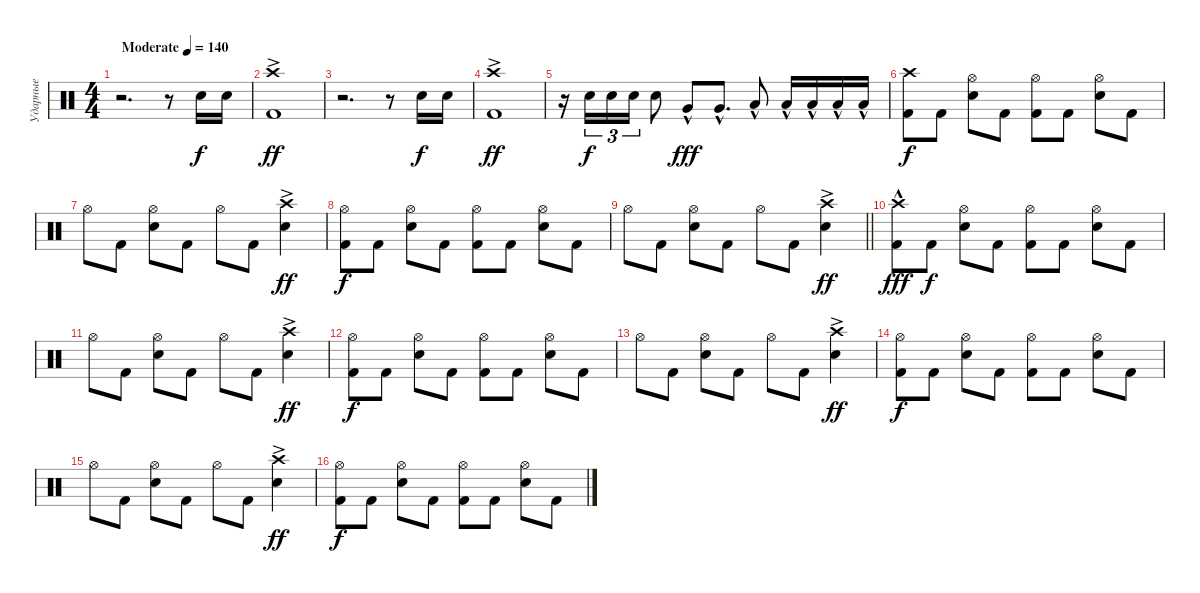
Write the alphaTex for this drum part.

\track ("Ударные" "Ударные") {instrument percussion}
\staff {score}
\articulation defaults
\ts (4 4)
\tempo (140 "Moderate")
\clef neutral
\ks c
r.2{d dy f} r.8 "Snare (hit) 2".16 "Snare (hit) 2".16 |
("Kick (hit) 2" "Crash high (hit)"{ac}).1{dy ff} |
r.2{d} r.8 "Snare (hit) 2".16{dy f} "Snare (hit) 2".16 |
("Kick (hit) 2" "Crash high (hit)"{ac}).1{dy ff} |
r.16 "Snare (hit) 2".16{tu (3 2) dy f} "Snare (hit) 2".16{tu (3 2)} "Snare (hit) 2".16{tu (3 2)} "Snare (hit) 2".8 "Very Low Tom (hit)"{hac}.8{dy fff} "Very Low Tom (hit)"{hac}.8{d} "Low Floor Tom (hit)"{hac}.8 "Low Tom (hit)"{hac}.16 "Low Tom (hit)"{hac}.16 "Low Tom (hit)"{hac}.16 "Low Tom (hit)"{hac}.16 |
("Kick (hit) 2" "Crash high (hit)").8{dy f} "Kick (hit) 2".8 ("Snare (hit) 2" "Hi-Hat (open)").8 "Kick (hit) 2".8 ("Kick (hit) 2" "Hi-Hat (open)").8 "Kick (hit) 2".8 ("Snare (hit) 2" "Hi-Hat (open)").8 "Kick (hit) 2".8 |
"Hi-Hat (open)".8 "Kick (hit) 2".8 ("Snare (hit) 2" "Hi-Hat (open)").8 "Kick (hit) 2".8 "Hi-Hat (open)".8 "Kick (hit) 2".8 ("Snare (hit) 2" "Crash high (hit)"{ac}).4{dy ff} |
("Kick (hit) 2" "Hi-Hat (open)").8{dy f} "Kick (hit) 2".8 ("Snare (hit) 2" "Hi-Hat (open)").8 "Kick (hit) 2".8 ("Kick (hit) 2" "Hi-Hat (open)").8 "Kick (hit) 2".8 ("Snare (hit) 2" "Hi-Hat (open)").8 "Kick (hit) 2".8 |
\barLineRight lightlight "Hi-Hat (open)".8 "Kick (hit) 2".8
("Snare (hit) 2" "Hi-Hat (open)").8 "Kick (hit) 2".8 "Hi-Hat (open)".8 "Kick (hit) 2".8 ("Snare (hit) 2" "Crash high (hit)"{ac}).4{dy ff} |
("Kick (hit) 2" "Crash high (hit)"{hac}).8{dy fff} "Kick (hit) 2".8{dy f} ("Snare (hit) 2" "Hi-Hat (open)").8 "Kick (hit) 2".8 ("Kick (hit) 2" "Hi-Hat (open)").8 "Kick (hit) 2".8 ("Snare (hit) 2" "Hi-Hat (open)").8 "Kick (hit) 2".8 |
"Hi-Hat (open)".8 "Kick (hit) 2".8 ("Snare (hit) 2" "Hi-Hat (open)").8 "Kick (hit) 2".8 "Hi-Hat (open)".8 "Kick (hit) 2".8 ("Snare (hit) 2" "Crash high (hit)"{ac}).4{dy ff} |
("Kick (hit) 2" "Hi-Hat (open)").8{dy f} "Kick (hit) 2".8 ("Snare (hit) 2" "Hi-Hat (open)").8 "Kick (hit) 2".8 ("Kick (hit) 2" "Hi-Hat (open)").8 "Kick (hit) 2".8 ("Snare (hit) 2" "Hi-Hat (open)").8 "Kick (hit) 2".8 |
"Hi-Hat (open)".8 "Kick (hit) 2".8 ("Snare (hit) 2" "Hi-Hat (open)").8 "Kick (hit) 2".8 "Hi-Hat (open)".8 "Kick (hit) 2".8 ("Snare (hit) 2" "Crash high (hit)"{ac}).4{dy ff} |
("Kick (hit) 2" "Hi-Hat (open)").8{dy f} "Kick (hit) 2".8 ("Snare (hit) 2" "Hi-Hat (open)").8 "Kick (hit) 2".8 ("Kick (hit) 2" "Hi-Hat (open)").8 "Kick (hit) 2".8 ("Snare (hit) 2" "Hi-Hat (open)").8 "Kick (hit) 2".8 |
"Hi-Hat (open)".8 "Kick (hit) 2".8 ("Snare (hit) 2" "Hi-Hat (open)").8 "Kick (hit) 2".8 "Hi-Hat (open)".8 "Kick (hit) 2".8 ("Snare (hit) 2" "Crash high (hit)"{ac}).4{dy ff} |
("Kick (hit) 2" "Hi-Hat (open)").8{dy f} "Kick (hit) 2".8 ("Snare (hit) 2" "Hi-Hat (open)").8 "Kick (hit) 2".8 ("Kick (hit) 2" "Hi-Hat (open)").8 "Kick (hit) 2".8 ("Snare (hit) 2" "Hi-Hat (open)").8 "Kick (hit) 2".8
